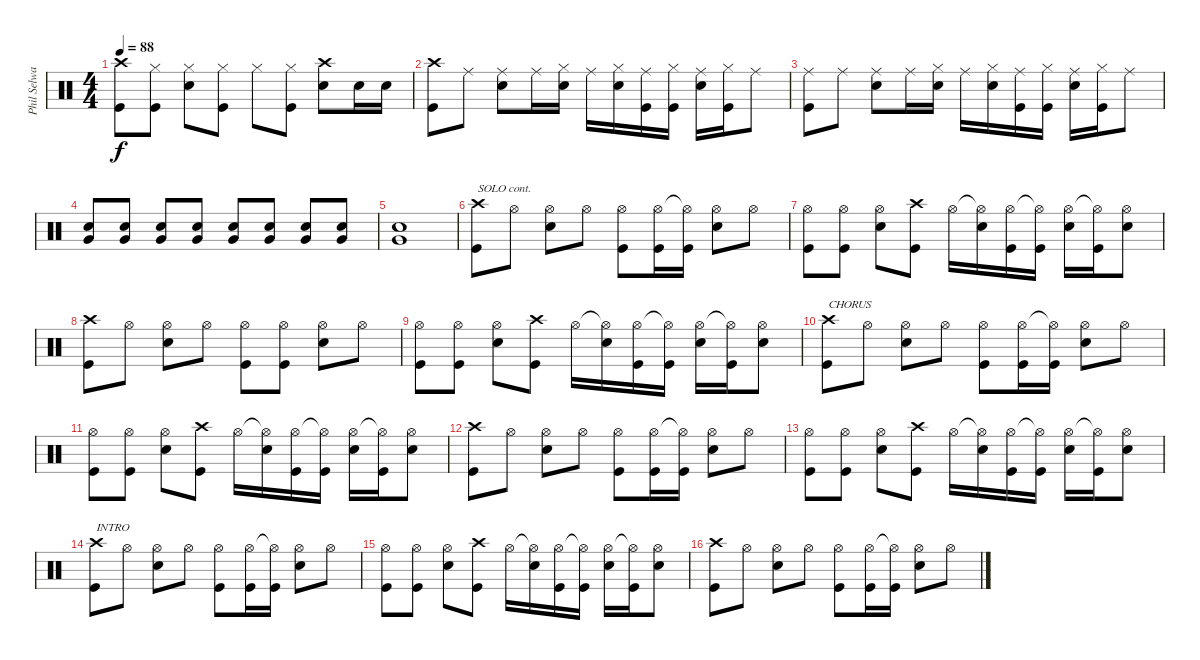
\track ("Phil Selway" "Phil Selwa") {instrument percussion}
\staff {score}
\articulation defaults
\ts (4 4)
\tempo 88
\clef neutral
\ks c
("Crash high (hit)" "Kick (hit)").8{dy f} ("Hi-Hat (closed)" "Kick (hit)").8 ("Hi-Hat (closed)" "Snare (hit) 2").8 ("Hi-Hat (closed)" "Kick (hit)").8 "Hi-Hat (closed)".8 ("Hi-Hat (closed)" "Kick (hit)").8 ("Crash high (hit)" "Snare (hit) 2").8 "Snare (hit) 2".16 "Snare (hit) 2".16 |
("Crash high (hit)" "Kick (hit)").8 "Ride (middle)".8 ("Ride (middle)" "Snare (hit) 2").8 "Ride (middle)".16 ("Hi-Hat (closed)" "Snare (hit) 2").16 "Ride (middle)".16 ("Hi-Hat (closed)" "Snare (hit) 2").16 ("Ride (middle)" "Kick (hit)").16 ("Hi-Hat (closed)" "Kick (hit)").16 ("Ride (middle)" "Snare (hit) 2").16 ("Hi-Hat (closed)" "Kick (hit)").16 "Ride (middle)".8 |
("Ride (middle)" "Kick (hit)").8 "Ride (middle)".8 ("Ride (middle)" "Snare (hit) 2").8 "Ride (middle)".16 ("Hi-Hat (closed)" "Snare (hit) 2").16 "Ride (middle)".16 ("Hi-Hat (closed)" "Snare (hit) 2").16 ("Ride (middle)" "Kick (hit)").16 ("Hi-Hat (closed)" "Kick (hit)").16 ("Ride (middle)" "Snare (hit) 2").16 ("Hi-Hat (closed)" "Kick (hit)").16 "Ride (middle)".8 |
("Snare (hit) 2" "Very Low Tom (hit)").8 ("Snare (hit) 2" "Very Low Tom (hit)").8 ("Snare (hit) 2" "Very Low Tom (hit)").8 ("Snare (hit) 2" "Very Low Tom (hit)").8 ("Snare (hit) 2" "Very Low Tom (hit)").8 ("Snare (hit) 2" "Very Low Tom (hit)").8 ("Snare (hit) 2" "Very Low Tom (hit)").8 ("Snare (hit) 2" "Very Low Tom (hit)").8 |
("Snare (hit) 2" "Very Low Tom (hit)").1 |
("Crash high (hit)" "Kick (hit)").8{txt "SOLO cont."} "Hi-Hat (open)".8 ("Hi-Hat (open)" "Snare (hit) 2").8 "Hi-Hat (open)".8 ("Hi-Hat (open)" "Kick (hit)").8 ("Hi-Hat (open)" "Kick (hit)").16 ("Hi-Hat (open)"{t} "Kick (hit)").16 ("Hi-Hat (open)" "Snare (hit) 2").8 "Hi-Hat (open)".8 |
("Hi-Hat (open)" "Kick (hit)").8 ("Hi-Hat (open)" "Kick (hit)").8 ("Hi-Hat (open)" "Snare (hit) 2").8 ("Crash high (hit)" "Kick (hit)").8 "Hi-Hat (open)".16 ("Hi-Hat (open)"{t} "Snare (hit) 2").16 ("Hi-Hat (open)" "Kick (hit)").16 ("Hi-Hat (open)"{t} "Kick (hit)").16 ("Hi-Hat (open)" "Snare (hit) 2").16 ("Hi-Hat (open)"{t} "Kick (hit)").16 ("Hi-Hat (open)" "Snare (hit) 2").8 |
("Crash high (hit)" "Kick (hit)").8 "Hi-Hat (open)".8 ("Hi-Hat (open)" "Snare (hit) 2").8 "Hi-Hat (open)".8 ("Hi-Hat (open)" "Kick (hit)").8 ("Hi-Hat (open)" "Kick (hit)").8 ("Hi-Hat (open)" "Snare (hit) 2").8 "Hi-Hat (open)".8 |
("Hi-Hat (open)" "Kick (hit)").8 ("Hi-Hat (open)" "Kick (hit)").8 ("Hi-Hat (open)" "Snare (hit) 2").8 ("Crash high (hit)" "Kick (hit)").8 "Hi-Hat (open)".16 ("Hi-Hat (open)"{t} "Snare (hit) 2").16 ("Hi-Hat (open)" "Kick (hit)").16 ("Hi-Hat (open)"{t} "Kick (hit)").16 ("Hi-Hat (open)" "Snare (hit) 2").16 ("Hi-Hat (open)"{t} "Kick (hit)").16 ("Hi-Hat (open)" "Snare (hit) 2").8 |
("Crash high (hit)" "Kick (hit)").8{txt "CHORUS"} "Hi-Hat (open)".8 ("Hi-Hat (open)" "Snare (hit) 2").8 "Hi-Hat (open)".8 ("Hi-Hat (open)" "Kick (hit)").8 ("Hi-Hat (open)" "Kick (hit)").16 ("Hi-Hat (open)"{t} "Kick (hit)").16 ("Hi-Hat (open)" "Snare (hit) 2").8 "Hi-Hat (open)".8 |
("Hi-Hat (open)" "Kick (hit)").8 ("Hi-Hat (open)" "Kick (hit)").8 ("Hi-Hat (open)" "Snare (hit) 2").8 ("Crash high (hit)" "Kick (hit)").8 "Hi-Hat (open)".16 ("Hi-Hat (open)"{t} "Snare (hit) 2").16 ("Hi-Hat (open)" "Kick (hit)").16 ("Hi-Hat (open)"{t} "Kick (hit)").16 ("Hi-Hat (open)" "Snare (hit) 2").16 ("Hi-Hat (open)"{t} "Kick (hit)").16 ("Hi-Hat (open)" "Snare (hit) 2").8 |
("Crash high (hit)" "Kick (hit)").8 "Hi-Hat (open)".8 ("Hi-Hat (open)" "Snare (hit) 2").8 "Hi-Hat (open)".8 ("Hi-Hat (open)" "Kick (hit)").8 ("Hi-Hat (open)" "Kick (hit)").16 ("Hi-Hat (open)"{t} "Kick (hit)").16 ("Hi-Hat (open)" "Snare (hit) 2").8 "Hi-Hat (open)".8 |
("Hi-Hat (open)" "Kick (hit)").8 ("Hi-Hat (open)" "Kick (hit)").8 ("Hi-Hat (open)" "Snare (hit) 2").8 ("Crash high (hit)" "Kick (hit)").8 "Hi-Hat (open)".16 ("Hi-Hat (open)"{t} "Snare (hit) 2").16 ("Hi-Hat (open)" "Kick (hit)").16 ("Hi-Hat (open)"{t} "Kick (hit)").16 ("Hi-Hat (open)" "Snare (hit) 2").16 ("Hi-Hat (open)"{t} "Kick (hit)").16 ("Hi-Hat (open)" "Snare (hit) 2").8 |
("Crash high (hit)" "Kick (hit)").8{txt "INTRO"} "Hi-Hat (open)".8 ("Hi-Hat (open)" "Snare (hit) 2").8 "Hi-Hat (open)".8 ("Hi-Hat (open)" "Kick (hit)").8 ("Hi-Hat (open)" "Kick (hit)").16 ("Hi-Hat (open)"{t} "Kick (hit)").16 ("Hi-Hat (open)" "Snare (hit) 2").8 "Hi-Hat (open)".8 |
("Hi-Hat (open)" "Kick (hit)").8 ("Hi-Hat (open)" "Kick (hit)").8 ("Hi-Hat (open)" "Snare (hit) 2").8 ("Crash high (hit)" "Kick (hit)").8 "Hi-Hat (open)".16 ("Hi-Hat (open)"{t} "Snare (hit) 2").16 ("Hi-Hat (open)" "Kick (hit)").16 ("Hi-Hat (open)"{t} "Kick (hit)").16 ("Hi-Hat (open)" "Snare (hit) 2").16 ("Hi-Hat (open)"{t} "Kick (hit)").16 ("Hi-Hat (open)" "Snare (hit) 2").8 |
("Crash high (hit)" "Kick (hit)").8 "Hi-Hat (open)".8 ("Hi-Hat (open)" "Snare (hit) 2").8 "Hi-Hat (open)".8 ("Hi-Hat (open)" "Kick (hit)").8 ("Hi-Hat (open)" "Kick (hit)").16 ("Hi-Hat (open)"{t} "Kick (hit)").16 ("Hi-Hat (open)" "Snare (hit) 2").8 "Hi-Hat (open)".8
